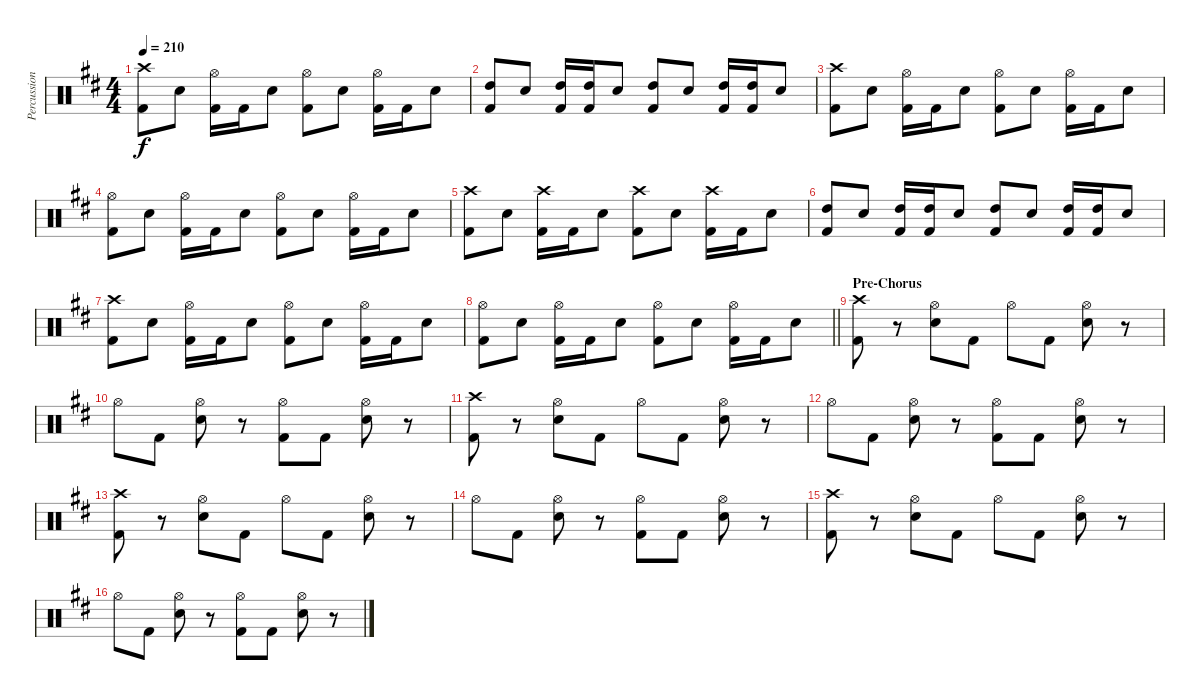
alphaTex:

\track ("Percussion" "Percussion") {instrument percussion}
\staff {score}
\articulation defaults
\ts (4 4)
\tempo 210
\clef neutral
\ks d
("Crash high (hit)" "Kick (hit) 2").8{dy f} "Electric Snare (hit)".8 ("Hi-Hat (open)" "Kick (hit) 2").16 "Kick (hit) 2".16 "Electric Snare (hit)".8 ("Hi-Hat (open)" "Kick (hit) 2").8 "Electric Snare (hit)".8 ("Hi-Hat (open)" "Kick (hit) 2").16 "Kick (hit) 2".16 "Electric Snare (hit)".8 |
("High Tom (hit)" "Kick (hit) 2").8 "Electric Snare (hit)".8 ("High Tom (hit)" "Kick (hit) 2").16 ("High Tom (hit)" "Kick (hit) 2").16 "Electric Snare (hit)".8 ("High Tom (hit)" "Kick (hit) 2").8 "Electric Snare (hit)".8 ("High Tom (hit)" "Kick (hit) 2").16 ("High Tom (hit)" "Kick (hit) 2").16 "Electric Snare (hit)".8 |
("Crash high (hit)" "Kick (hit) 2").8 "Electric Snare (hit)".8 ("Hi-Hat (open)" "Kick (hit) 2").16 "Kick (hit) 2".16 "Electric Snare (hit)".8 ("Hi-Hat (open)" "Kick (hit) 2").8 "Electric Snare (hit)".8 ("Hi-Hat (open)" "Kick (hit) 2").16 "Kick (hit) 2".16 "Electric Snare (hit)".8 |
("Hi-Hat (open)" "Kick (hit) 2").8 "Electric Snare (hit)".8 ("Hi-Hat (open)" "Kick (hit) 2").16 "Kick (hit) 2".16 "Electric Snare (hit)".8 ("Hi-Hat (open)" "Kick (hit) 2").8 "Electric Snare (hit)".8 ("Hi-Hat (open)" "Kick (hit) 2").16 "Kick (hit) 2".16 "Electric Snare (hit)".8 |
("Crash high (hit)" "Kick (hit) 2").8 "Electric Snare (hit)".8 ("Crash high (hit)" "Kick (hit) 2").16 "Kick (hit) 2".16 "Electric Snare (hit)".8 ("Crash high (hit)" "Kick (hit) 2").8 "Electric Snare (hit)".8 ("Crash high (hit)" "Kick (hit) 2").16 "Kick (hit) 2".16 "Electric Snare (hit)".8 |
("High Tom (hit)" "Kick (hit) 2").8 "Electric Snare (hit)".8 ("High Tom (hit)" "Kick (hit) 2").16 ("High Tom (hit)" "Kick (hit) 2").16 "Electric Snare (hit)".8 ("High Tom (hit)" "Kick (hit) 2").8 "Electric Snare (hit)".8 ("High Tom (hit)" "Kick (hit) 2").16 ("High Tom (hit)" "Kick (hit) 2").16 "Electric Snare (hit)".8 |
("Crash high (hit)" "Kick (hit) 2").8 "Electric Snare (hit)".8 ("Hi-Hat (open)" "Kick (hit) 2").16 "Kick (hit) 2".16 "Electric Snare (hit)".8 ("Hi-Hat (open)" "Kick (hit) 2").8 "Electric Snare (hit)".8 ("Hi-Hat (open)" "Kick (hit) 2").16 "Kick (hit) 2".16 "Electric Snare (hit)".8 |
\barLineRight lightlight
("Hi-Hat (open)" "Kick (hit) 2").8 "Electric Snare (hit)".8 ("Hi-Hat (open)" "Kick (hit) 2").16 "Kick (hit) 2".16 "Electric Snare (hit)".8 ("Hi-Hat (open)" "Kick (hit) 2").8 "Electric Snare (hit)".8 ("Hi-Hat (open)" "Kick (hit) 2").16 "Kick (hit) 2".16 "Electric Snare (hit)".8 |
\section ("" "Pre-Chorus")
("Crash high (hit)" "Kick (hit) 2").8 r.8 ("Hi-Hat (open)" "Electric Snare (hit)").8 "Kick (hit) 2".8 "Hi-Hat (open)".8 "Kick (hit) 2".8 ("Hi-Hat (open)" "Electric Snare (hit)").8 r.8 |
"Hi-Hat (open)".8 "Kick (hit) 2".8 ("Hi-Hat (open)" "Electric Snare (hit)").8 r.8 ("Hi-Hat (open)" "Kick (hit) 2").8 "Kick (hit) 2".8 ("Hi-Hat (open)" "Electric Snare (hit)").8 r.8 |
("Crash high (hit)" "Kick (hit) 2").8 r.8 ("Hi-Hat (open)" "Electric Snare (hit)").8 "Kick (hit) 2".8 "Hi-Hat (open)".8 "Kick (hit) 2".8 ("Hi-Hat (open)" "Electric Snare (hit)").8 r.8 |
"Hi-Hat (open)".8 "Kick (hit) 2".8 ("Hi-Hat (open)" "Electric Snare (hit)").8 r.8 ("Hi-Hat (open)" "Kick (hit) 2").8 "Kick (hit) 2".8 ("Hi-Hat (open)" "Electric Snare (hit)").8 r.8 |
("Crash high (hit)" "Kick (hit) 2").8 r.8 ("Hi-Hat (open)" "Electric Snare (hit)").8 "Kick (hit) 2".8 "Hi-Hat (open)".8 "Kick (hit) 2".8 ("Hi-Hat (open)" "Electric Snare (hit)").8 r.8 |
"Hi-Hat (open)".8 "Kick (hit) 2".8 ("Hi-Hat (open)" "Electric Snare (hit)").8 r.8 ("Hi-Hat (open)" "Kick (hit) 2").8 "Kick (hit) 2".8 ("Hi-Hat (open)" "Electric Snare (hit)").8 r.8 |
("Crash high (hit)" "Kick (hit) 2").8 r.8 ("Hi-Hat (open)" "Electric Snare (hit)").8 "Kick (hit) 2".8 "Hi-Hat (open)".8 "Kick (hit) 2".8 ("Hi-Hat (open)" "Electric Snare (hit)").8 r.8 |
"Hi-Hat (open)".8 "Kick (hit) 2".8 ("Hi-Hat (open)" "Electric Snare (hit)").8 r.8 ("Hi-Hat (open)" "Kick (hit) 2").8 "Kick (hit) 2".8 ("Hi-Hat (open)" "Electric Snare (hit)").8 r.8
